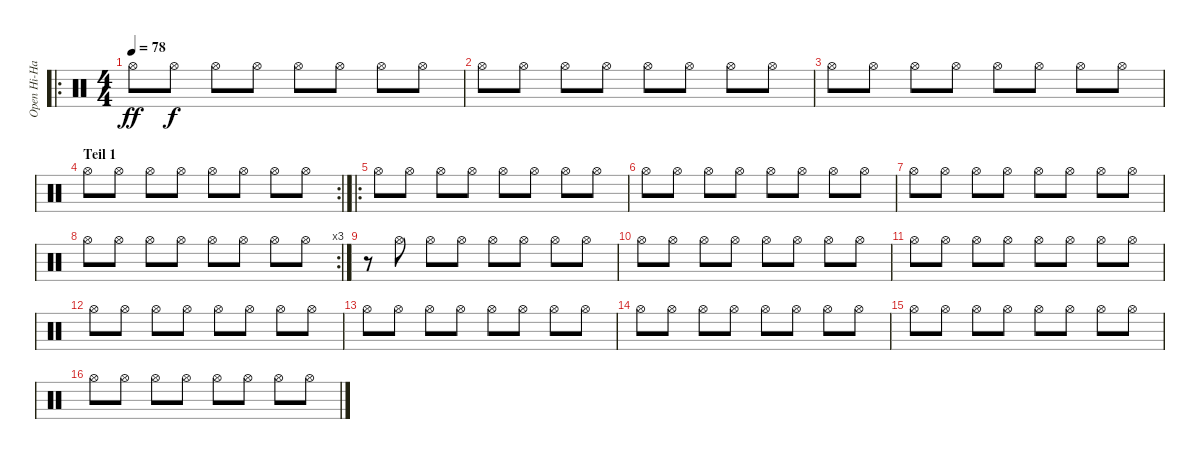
\track ("Open Hi-Hat" "Open Hi-Ha") {instrument percussion}
\staff {score}
\articulation defaults
\ro
\ts (4 4)
\tempo 78
\clef neutral
\ks c "Hi-Hat (open)".8{dy ff} "Hi-Hat (open)".8{dy f} "Hi-Hat (open)".8 "Hi-Hat (open)".8 "Hi-Hat (open)".8 "Hi-Hat (open)".8 "Hi-Hat (open)".8 "Hi-Hat (open)".8
|
"Hi-Hat (open)".8 "Hi-Hat (open)".8 "Hi-Hat (open)".8 "Hi-Hat (open)".8 "Hi-Hat (open)".8 "Hi-Hat (open)".8 "Hi-Hat (open)".8 "Hi-Hat (open)".8 |
"Hi-Hat (open)".8 "Hi-Hat (open)".8 "Hi-Hat (open)".8 "Hi-Hat (open)".8 "Hi-Hat (open)".8 "Hi-Hat (open)".8 "Hi-Hat (open)".8 "Hi-Hat (open)".8 |
\rc 2
\section ("" "Teil 1")
"Hi-Hat (open)".8 "Hi-Hat (open)".8 "Hi-Hat (open)".8 "Hi-Hat (open)".8 "Hi-Hat (open)".8 "Hi-Hat (open)".8 "Hi-Hat (open)".8 "Hi-Hat (open)".8 |
\ro "Hi-Hat (open)".8 "Hi-Hat (open)".8 "Hi-Hat (open)".8 "Hi-Hat (open)".8 "Hi-Hat (open)".8 "Hi-Hat (open)".8 "Hi-Hat (open)".8 "Hi-Hat (open)".8
|
"Hi-Hat (open)".8 "Hi-Hat (open)".8 "Hi-Hat (open)".8 "Hi-Hat (open)".8 "Hi-Hat (open)".8 "Hi-Hat (open)".8 "Hi-Hat (open)".8 "Hi-Hat (open)".8 |
"Hi-Hat (open)".8 "Hi-Hat (open)".8 "Hi-Hat (open)".8 "Hi-Hat (open)".8 "Hi-Hat (open)".8 "Hi-Hat (open)".8 "Hi-Hat (open)".8 "Hi-Hat (open)".8 |
\rc 3 "Hi-Hat (open)".8 "Hi-Hat (open)".8 "Hi-Hat (open)".8 "Hi-Hat (open)".8 "Hi-Hat (open)".8 "Hi-Hat (open)".8 "Hi-Hat (open)".8 "Hi-Hat (open)".8
|
r.8 "Hi-Hat (open)".8 "Hi-Hat (open)".8 "Hi-Hat (open)".8 "Hi-Hat (open)".8 "Hi-Hat (open)".8 "Hi-Hat (open)".8 "Hi-Hat (open)".8 |
"Hi-Hat (open)".8 "Hi-Hat (open)".8 "Hi-Hat (open)".8 "Hi-Hat (open)".8 "Hi-Hat (open)".8 "Hi-Hat (open)".8 "Hi-Hat (open)".8 "Hi-Hat (open)".8 |
"Hi-Hat (open)".8 "Hi-Hat (open)".8 "Hi-Hat (open)".8 "Hi-Hat (open)".8 "Hi-Hat (open)".8 "Hi-Hat (open)".8 "Hi-Hat (open)".8 "Hi-Hat (open)".8 |
"Hi-Hat (open)".8 "Hi-Hat (open)".8 "Hi-Hat (open)".8 "Hi-Hat (open)".8 "Hi-Hat (open)".8 "Hi-Hat (open)".8 "Hi-Hat (open)".8 "Hi-Hat (open)".8 |
"Hi-Hat (open)".8 "Hi-Hat (open)".8 "Hi-Hat (open)".8 "Hi-Hat (open)".8 "Hi-Hat (open)".8 "Hi-Hat (open)".8 "Hi-Hat (open)".8 "Hi-Hat (open)".8 |
"Hi-Hat (open)".8 "Hi-Hat (open)".8 "Hi-Hat (open)".8 "Hi-Hat (open)".8 "Hi-Hat (open)".8 "Hi-Hat (open)".8 "Hi-Hat (open)".8 "Hi-Hat (open)".8 |
"Hi-Hat (open)".8 "Hi-Hat (open)".8 "Hi-Hat (open)".8 "Hi-Hat (open)".8 "Hi-Hat (open)".8 "Hi-Hat (open)".8 "Hi-Hat (open)".8 "Hi-Hat (open)".8 |
"Hi-Hat (open)".8 "Hi-Hat (open)".8 "Hi-Hat (open)".8 "Hi-Hat (open)".8 "Hi-Hat (open)".8 "Hi-Hat (open)".8 "Hi-Hat (open)".8 "Hi-Hat (open)".8
